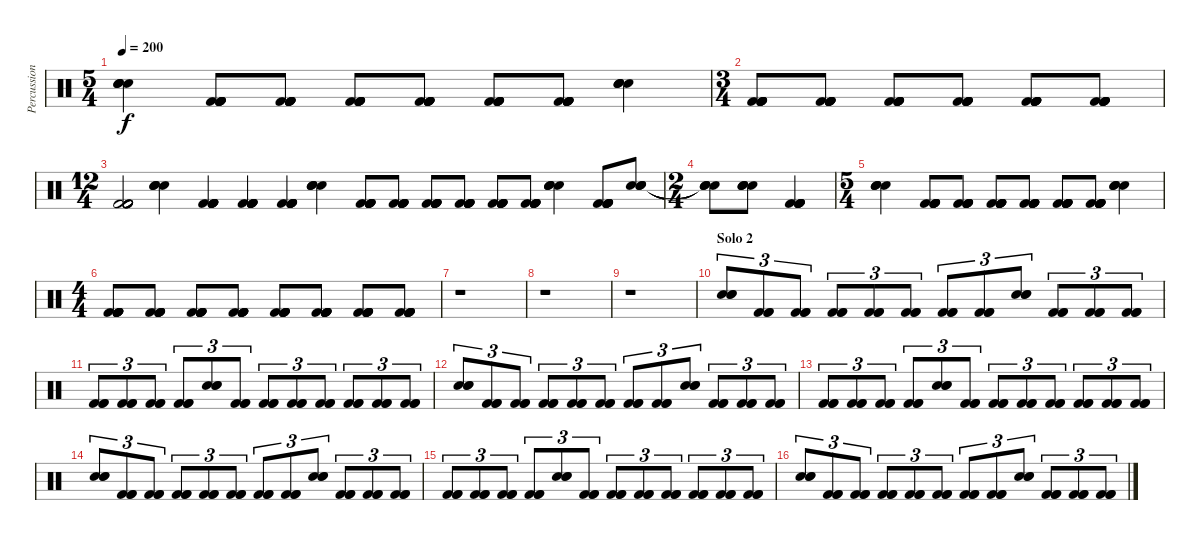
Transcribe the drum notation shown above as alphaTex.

\track ("Percussion" "Percussion") {instrument percussion}
\staff {score}
\articulation defaults
\ts (5 4)
\tempo 200
\clef neutral
\ks c
("Snare (hit) 2" "Snare (hit) 2" "Snare (hit) 2" "Snare (hit) 2").4{dy f} ("Kick (hit) 2" "Kick (hit) 2" "Kick (hit) 2" "Kick (hit) 2" "Kick (hit) 2" "Kick (hit) 2").8 ("Kick (hit) 2" "Kick (hit) 2" "Kick (hit) 2" "Kick (hit) 2" "Kick (hit) 2" "Kick (hit) 2").8 ("Kick (hit) 2" "Kick (hit) 2" "Kick (hit) 2" "Kick (hit) 2" "Kick (hit) 2" "Kick (hit) 2").8 ("Kick (hit) 2" "Kick (hit) 2" "Kick (hit) 2" "Kick (hit) 2" "Kick (hit) 2" "Kick (hit) 2").8 ("Kick (hit) 2" "Kick (hit) 2" "Kick (hit) 2" "Kick (hit) 2" "Kick (hit) 2" "Kick (hit) 2").8 ("Kick (hit) 2" "Kick (hit) 2" "Kick (hit) 2" "Kick (hit) 2" "Kick (hit) 2" "Kick (hit) 2").8 ("Snare (hit) 2" "Snare (hit) 2" "Snare (hit) 2" "Snare (hit) 2").4 |
\ts (3 4)
("Kick (hit) 2" "Kick (hit) 2" "Kick (hit) 2" "Kick (hit) 2" "Kick (hit) 2" "Kick (hit) 2").8 ("Kick (hit) 2" "Kick (hit) 2" "Kick (hit) 2" "Kick (hit) 2" "Kick (hit) 2" "Kick (hit) 2").8 ("Kick (hit) 2" "Kick (hit) 2" "Kick (hit) 2" "Kick (hit) 2" "Kick (hit) 2" "Kick (hit) 2").8 ("Kick (hit) 2" "Kick (hit) 2" "Kick (hit) 2" "Kick (hit) 2" "Kick (hit) 2" "Kick (hit) 2").8 ("Kick (hit) 2" "Kick (hit) 2" "Kick (hit) 2" "Kick (hit) 2" "Kick (hit) 2" "Kick (hit) 2").8 ("Kick (hit) 2" "Kick (hit) 2" "Kick (hit) 2" "Kick (hit) 2" "Kick (hit) 2" "Kick (hit) 2").8 |
\ts (12 4)
("Kick (hit) 2" "Kick (hit) 2" "Kick (hit) 2" "Kick (hit) 2" "Kick (hit) 2" "Kick (hit) 2").2 ("Snare (hit) 2" "Snare (hit) 2" "Snare (hit) 2" "Snare (hit) 2").4 ("Kick (hit) 2" "Kick (hit) 2" "Kick (hit) 2" "Kick (hit) 2" "Kick (hit) 2" "Kick (hit) 2").4 ("Kick (hit) 2" "Kick (hit) 2" "Kick (hit) 2" "Kick (hit) 2" "Kick (hit) 2" "Kick (hit) 2").4 ("Kick (hit) 2" "Kick (hit) 2" "Kick (hit) 2" "Kick (hit) 2" "Kick (hit) 2" "Kick (hit) 2").4 ("Snare (hit) 2" "Snare (hit) 2" "Snare (hit) 2" "Snare (hit) 2").4 ("Kick (hit) 2" "Kick (hit) 2" "Kick (hit) 2" "Kick (hit) 2" "Kick (hit) 2" "Kick (hit) 2").8 ("Kick (hit) 2" "Kick (hit) 2" "Kick (hit) 2" "Kick (hit) 2" "Kick (hit) 2" "Kick (hit) 2").8 ("Kick (hit) 2" "Kick (hit) 2" "Kick (hit) 2" "Kick (hit) 2" "Kick (hit) 2" "Kick (hit) 2").8 ("Kick (hit) 2" "Kick (hit) 2" "Kick (hit) 2" "Kick (hit) 2" "Kick (hit) 2" "Kick (hit) 2").8 ("Kick (hit) 2" "Kick (hit) 2" "Kick (hit) 2" "Kick (hit) 2" "Kick (hit) 2" "Kick (hit) 2").8 ("Kick (hit) 2" "Kick (hit) 2" "Kick (hit) 2" "Kick (hit) 2" "Kick (hit) 2" "Kick (hit) 2").8 ("Snare (hit) 2" "Snare (hit) 2" "Snare (hit) 2" "Snare (hit) 2").4 ("Kick (hit) 2" "Kick (hit) 2" "Kick (hit) 2" "Kick (hit) 2" "Kick (hit) 2" "Kick (hit) 2").8 ("Snare (hit) 2" "Snare (hit) 2" "Snare (hit) 2" "Snare (hit) 2").8 |
\ts (2 4)
("Snare (hit) 2"{t} "Snare (hit) 2"{t} "Snare (hit) 2"{t} "Snare (hit) 2"{t}).8 ("Snare (hit) 2" "Snare (hit) 2" "Snare (hit) 2" "Snare (hit) 2").8 ("Kick (hit) 2" "Kick (hit) 2" "Kick (hit) 2" "Kick (hit) 2" "Kick (hit) 2" "Kick (hit) 2").4 |
\ts (5 4)
("Snare (hit) 2" "Snare (hit) 2" "Snare (hit) 2" "Snare (hit) 2").4 ("Kick (hit) 2" "Kick (hit) 2" "Kick (hit) 2" "Kick (hit) 2" "Kick (hit) 2" "Kick (hit) 2").8 ("Kick (hit) 2" "Kick (hit) 2" "Kick (hit) 2" "Kick (hit) 2" "Kick (hit) 2" "Kick (hit) 2").8 ("Kick (hit) 2" "Kick (hit) 2" "Kick (hit) 2" "Kick (hit) 2" "Kick (hit) 2" "Kick (hit) 2").8 ("Kick (hit) 2" "Kick (hit) 2" "Kick (hit) 2" "Kick (hit) 2" "Kick (hit) 2" "Kick (hit) 2").8 ("Kick (hit) 2" "Kick (hit) 2" "Kick (hit) 2" "Kick (hit) 2" "Kick (hit) 2" "Kick (hit) 2").8 ("Kick (hit) 2" "Kick (hit) 2" "Kick (hit) 2" "Kick (hit) 2" "Kick (hit) 2" "Kick (hit) 2").8 ("Snare (hit) 2" "Snare (hit) 2" "Snare (hit) 2" "Snare (hit) 2").4 |
\ts (4 4)
("Kick (hit) 2" "Kick (hit) 2" "Kick (hit) 2" "Kick (hit) 2" "Kick (hit) 2" "Kick (hit) 2").8 ("Kick (hit) 2" "Kick (hit) 2" "Kick (hit) 2" "Kick (hit) 2" "Kick (hit) 2" "Kick (hit) 2").8 ("Kick (hit) 2" "Kick (hit) 2" "Kick (hit) 2" "Kick (hit) 2" "Kick (hit) 2" "Kick (hit) 2").8 ("Kick (hit) 2" "Kick (hit) 2" "Kick (hit) 2" "Kick (hit) 2" "Kick (hit) 2" "Kick (hit) 2").8 ("Kick (hit) 2" "Kick (hit) 2" "Kick (hit) 2" "Kick (hit) 2" "Kick (hit) 2" "Kick (hit) 2").8 ("Kick (hit) 2" "Kick (hit) 2" "Kick (hit) 2" "Kick (hit) 2" "Kick (hit) 2" "Kick (hit) 2").8 ("Kick (hit) 2" "Kick (hit) 2" "Kick (hit) 2" "Kick (hit) 2" "Kick (hit) 2" "Kick (hit) 2").8 ("Kick (hit) 2" "Kick (hit) 2" "Kick (hit) 2" "Kick (hit) 2" "Kick (hit) 2" "Kick (hit) 2").8 |
r.1 |
r.1 |
r.1 |
\section ("" "Solo 2 ")
("Snare (hit) 2" "Snare (hit) 2" "Snare (hit) 2").8{tu (3 2)} ("Kick (hit) 2" "Kick (hit) 2" "Kick (hit) 2").8{tu (3 2)} ("Kick (hit) 2" "Kick (hit) 2" "Kick (hit) 2").8{tu (3 2)} ("Kick (hit) 2" "Kick (hit) 2" "Kick (hit) 2").8{tu (3 2)} ("Kick (hit) 2" "Kick (hit) 2" "Kick (hit) 2").8{tu (3 2)} ("Kick (hit) 2" "Kick (hit) 2" "Kick (hit) 2").8{tu (3 2)} ("Kick (hit) 2" "Kick (hit) 2" "Kick (hit) 2").8{tu (3 2)} ("Kick (hit) 2" "Kick (hit) 2" "Kick (hit) 2").8{tu (3 2)} ("Snare (hit) 2" "Snare (hit) 2" "Snare (hit) 2").8{tu (3 2)} ("Kick (hit) 2" "Kick (hit) 2" "Kick (hit) 2").8{tu (3 2)} ("Kick (hit) 2" "Kick (hit) 2" "Kick (hit) 2").8{tu (3 2)} ("Kick (hit) 2" "Kick (hit) 2" "Kick (hit) 2").8{tu (3 2)} |
("Kick (hit) 2" "Kick (hit) 2" "Kick (hit) 2").8{tu (3 2)} ("Kick (hit) 2" "Kick (hit) 2" "Kick (hit) 2").8{tu (3 2)} ("Kick (hit) 2" "Kick (hit) 2" "Kick (hit) 2").8{tu (3 2)} ("Kick (hit) 2" "Kick (hit) 2" "Kick (hit) 2").8{tu (3 2)} ("Snare (hit) 2" "Snare (hit) 2" "Snare (hit) 2").8{tu (3 2)} ("Kick (hit) 2" "Kick (hit) 2" "Kick (hit) 2").8{tu (3 2)} ("Kick (hit) 2" "Kick (hit) 2" "Kick (hit) 2").8{tu (3 2)} ("Kick (hit) 2" "Kick (hit) 2" "Kick (hit) 2").8{tu (3 2)} ("Kick (hit) 2" "Kick (hit) 2" "Kick (hit) 2").8{tu (3 2)} ("Kick (hit) 2" "Kick (hit) 2" "Kick (hit) 2").8{tu (3 2)} ("Kick (hit) 2" "Kick (hit) 2" "Kick (hit) 2").8{tu (3 2)} ("Kick (hit) 2" "Kick (hit) 2" "Kick (hit) 2").8{tu (3 2)} |
("Snare (hit) 2" "Snare (hit) 2" "Snare (hit) 2").8{tu (3 2)} ("Kick (hit) 2" "Kick (hit) 2" "Kick (hit) 2").8{tu (3 2)} ("Kick (hit) 2" "Kick (hit) 2" "Kick (hit) 2").8{tu (3 2)} ("Kick (hit) 2" "Kick (hit) 2" "Kick (hit) 2").8{tu (3 2)} ("Kick (hit) 2" "Kick (hit) 2" "Kick (hit) 2").8{tu (3 2)} ("Kick (hit) 2" "Kick (hit) 2" "Kick (hit) 2").8{tu (3 2)} ("Kick (hit) 2" "Kick (hit) 2" "Kick (hit) 2").8{tu (3 2)} ("Kick (hit) 2" "Kick (hit) 2" "Kick (hit) 2").8{tu (3 2)} ("Snare (hit) 2" "Snare (hit) 2" "Snare (hit) 2").8{tu (3 2)} ("Kick (hit) 2" "Kick (hit) 2" "Kick (hit) 2").8{tu (3 2)} ("Kick (hit) 2" "Kick (hit) 2" "Kick (hit) 2").8{tu (3 2)} ("Kick (hit) 2" "Kick (hit) 2" "Kick (hit) 2").8{tu (3 2)} |
("Kick (hit) 2" "Kick (hit) 2" "Kick (hit) 2").8{tu (3 2)} ("Kick (hit) 2" "Kick (hit) 2" "Kick (hit) 2").8{tu (3 2)} ("Kick (hit) 2" "Kick (hit) 2" "Kick (hit) 2").8{tu (3 2)} ("Kick (hit) 2" "Kick (hit) 2" "Kick (hit) 2").8{tu (3 2)} ("Snare (hit) 2" "Snare (hit) 2" "Snare (hit) 2").8{tu (3 2)} ("Kick (hit) 2" "Kick (hit) 2" "Kick (hit) 2").8{tu (3 2)} ("Kick (hit) 2" "Kick (hit) 2" "Kick (hit) 2").8{tu (3 2)} ("Kick (hit) 2" "Kick (hit) 2" "Kick (hit) 2").8{tu (3 2)} ("Kick (hit) 2" "Kick (hit) 2" "Kick (hit) 2").8{tu (3 2)} ("Kick (hit) 2" "Kick (hit) 2" "Kick (hit) 2").8{tu (3 2)} ("Kick (hit) 2" "Kick (hit) 2" "Kick (hit) 2").8{tu (3 2)} ("Kick (hit) 2" "Kick (hit) 2" "Kick (hit) 2").8{tu (3 2)} |
("Snare (hit) 2" "Snare (hit) 2" "Snare (hit) 2").8{tu (3 2)} ("Kick (hit) 2" "Kick (hit) 2" "Kick (hit) 2").8{tu (3 2)} ("Kick (hit) 2" "Kick (hit) 2" "Kick (hit) 2").8{tu (3 2)} ("Kick (hit) 2" "Kick (hit) 2" "Kick (hit) 2").8{tu (3 2)} ("Kick (hit) 2" "Kick (hit) 2" "Kick (hit) 2").8{tu (3 2)} ("Kick (hit) 2" "Kick (hit) 2" "Kick (hit) 2").8{tu (3 2)} ("Kick (hit) 2" "Kick (hit) 2" "Kick (hit) 2").8{tu (3 2)} ("Kick (hit) 2" "Kick (hit) 2" "Kick (hit) 2").8{tu (3 2)} ("Snare (hit) 2" "Snare (hit) 2" "Snare (hit) 2").8{tu (3 2)} ("Kick (hit) 2" "Kick (hit) 2" "Kick (hit) 2").8{tu (3 2)} ("Kick (hit) 2" "Kick (hit) 2" "Kick (hit) 2").8{tu (3 2)} ("Kick (hit) 2" "Kick (hit) 2" "Kick (hit) 2").8{tu (3 2)} |
("Kick (hit) 2" "Kick (hit) 2" "Kick (hit) 2").8{tu (3 2)} ("Kick (hit) 2" "Kick (hit) 2" "Kick (hit) 2").8{tu (3 2)} ("Kick (hit) 2" "Kick (hit) 2" "Kick (hit) 2").8{tu (3 2)} ("Kick (hit) 2" "Kick (hit) 2" "Kick (hit) 2").8{tu (3 2)} ("Snare (hit) 2" "Snare (hit) 2" "Snare (hit) 2").8{tu (3 2)} ("Kick (hit) 2" "Kick (hit) 2" "Kick (hit) 2").8{tu (3 2)} ("Kick (hit) 2" "Kick (hit) 2" "Kick (hit) 2").8{tu (3 2)} ("Kick (hit) 2" "Kick (hit) 2" "Kick (hit) 2").8{tu (3 2)} ("Kick (hit) 2" "Kick (hit) 2" "Kick (hit) 2").8{tu (3 2)} ("Kick (hit) 2" "Kick (hit) 2" "Kick (hit) 2").8{tu (3 2)} ("Kick (hit) 2" "Kick (hit) 2" "Kick (hit) 2").8{tu (3 2)} ("Kick (hit) 2" "Kick (hit) 2" "Kick (hit) 2").8{tu (3 2)} |
("Snare (hit) 2" "Snare (hit) 2" "Snare (hit) 2").8{tu (3 2)} ("Kick (hit) 2" "Kick (hit) 2" "Kick (hit) 2").8{tu (3 2)} ("Kick (hit) 2" "Kick (hit) 2" "Kick (hit) 2").8{tu (3 2)} ("Kick (hit) 2" "Kick (hit) 2" "Kick (hit) 2").8{tu (3 2)} ("Kick (hit) 2" "Kick (hit) 2" "Kick (hit) 2").8{tu (3 2)} ("Kick (hit) 2" "Kick (hit) 2" "Kick (hit) 2").8{tu (3 2)} ("Kick (hit) 2" "Kick (hit) 2" "Kick (hit) 2").8{tu (3 2)} ("Kick (hit) 2" "Kick (hit) 2" "Kick (hit) 2").8{tu (3 2)} ("Snare (hit) 2" "Snare (hit) 2" "Snare (hit) 2").8{tu (3 2)} ("Kick (hit) 2" "Kick (hit) 2" "Kick (hit) 2").8{tu (3 2)} ("Kick (hit) 2" "Kick (hit) 2" "Kick (hit) 2").8{tu (3 2)} ("Kick (hit) 2" "Kick (hit) 2" "Kick (hit) 2").8{tu (3 2)}
